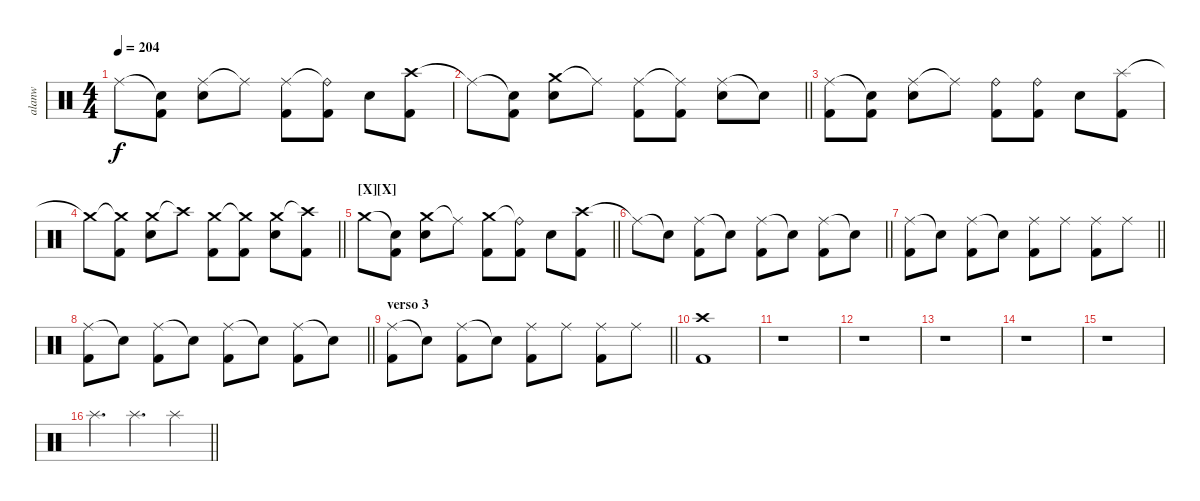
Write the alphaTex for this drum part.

\track ("alanw" "alanw") {instrument percussion}
\staff {score}
\articulation defaults
\ts (4 4)
\tempo 204
\clef neutral
\ks c "Ride (middle)".8{dy f}
("Snare (hit)"{t} "Kick (hit) 2").8 ("Ride (middle)" "Electric Snare (hit)").8 "Ride (middle)"{t}.8 ("Ride (middle)" "Kick (hit) 2").8 ("Ride (bell)"{t} "Kick (hit) 2").8 "Electric Snare (hit)".8 ("Crash high (hit)" "Kick (hit) 2").8 |
\barLineRight lightlight "Ride (middle)"{t}.8
("Snare (hit)"{t} "Kick (hit) 2").8 ("Crash medium (hit)" "Electric Snare (hit)").8 "Ride (middle)"{t}.8 ("Ride (middle)" "Kick (hit) 2").8 ("Ride (middle)"{t} "Kick (hit) 2").8 ("Ride (middle)" "Electric Snare (hit)").8 "Snare (hit)"{t}.8 |
("Ride (middle)" "Kick (hit) 2").8 ("Snare (hit)"{t} "Kick (hit) 2").8 ("Ride (middle)" "Electric Snare (hit)").8 "Ride (middle)"{t}.8 ("Ride (bell)" "Kick (hit) 2").8 ("Ride (bell)" "Kick (hit) 2").8 "Electric Snare (hit)".8 ("Splash (hit)" "Kick (hit) 2").8 |
\barLineRight lightlight "Crash medium (hit)"{t}.8
("Crash medium (hit)"{t} "Kick (hit) 2").8 ("Crash medium (hit)" "Electric Snare (hit)").8 "Crash high (hit)"{t}.8 ("Crash medium (hit)" "Kick (hit) 2").8 ("Crash medium (hit)"{t} "Kick (hit) 2").8 ("Crash medium (hit)" "Electric Snare (hit)").8 ("Crash high (hit)"{t} "Kick (hit) 2").8 |
\section ("" "[X][X]")
\barLineRight lightlight "Crash medium (hit)".8
("Snare (hit)"{t} "Kick (hit) 2").8 ("Crash medium (hit)" "Electric Snare (hit)").8 "Ride (middle)"{t}.8 ("Crash medium (hit)" "Kick (hit) 2").8 ("Ride (bell)"{t} "Kick (hit) 2").8 "Electric Snare (hit)".8 ("Crash high (hit)" "Kick (hit) 2").8 |
\barLineRight lightlight "Ride (middle)"{t}.8 "Snare (hit)"{t}.8
("Ride (middle)" "Kick (hit) 2").8 "Snare (hit)"{t}.8 ("Ride (middle)" "Kick (hit) 2").8 "Snare (hit)"{t}.8 ("Ride (middle)" "Kick (hit) 2").8 "Snare (hit)"{t}.8 |
\barLineRight lightlight
("Ride (middle)" "Kick (hit) 2").8 "Snare (hit)"{t}.8 ("Ride (middle)" "Kick (hit) 2").8 "Snare (hit)"{t}.8 ("Ride (middle)" "Kick (hit) 2").8 "Ride (middle)".8 ("Ride (middle)" "Kick (hit) 2").8 "Ride (middle)".8 |
\barLineRight lightlight
("Ride (middle)" "Kick (hit) 2").8 "Snare (hit)"{t}.8 ("Ride (middle)" "Kick (hit) 2").8 "Snare (hit)"{t}.8 ("Ride (middle)" "Kick (hit) 2").8 "Snare (hit)"{t}.8 ("Ride (middle)" "Kick (hit) 2").8 "Snare (hit)"{t}.8 |
\section ("" "verso 3")
\barLineRight lightlight
("Ride (middle)" "Kick (hit) 2").8 "Snare (hit)"{t}.8 ("Ride (middle)" "Kick (hit) 2").8 "Snare (hit)"{t}.8 ("Ride (middle)" "Kick (hit) 2").8 "Ride (middle)".8 ("Ride (middle)" "Kick (hit) 2").8 "Ride (middle)".8 |
("Crash high (hit)" "Kick (hit) 2").1 |
r.1 |
r.1 |
r.1 |
r.1 |
r.1 |
\barLineRight lightlight "Splash (hit)".4{d} "Splash (hit)".4{d} "Splash (hit)".4
